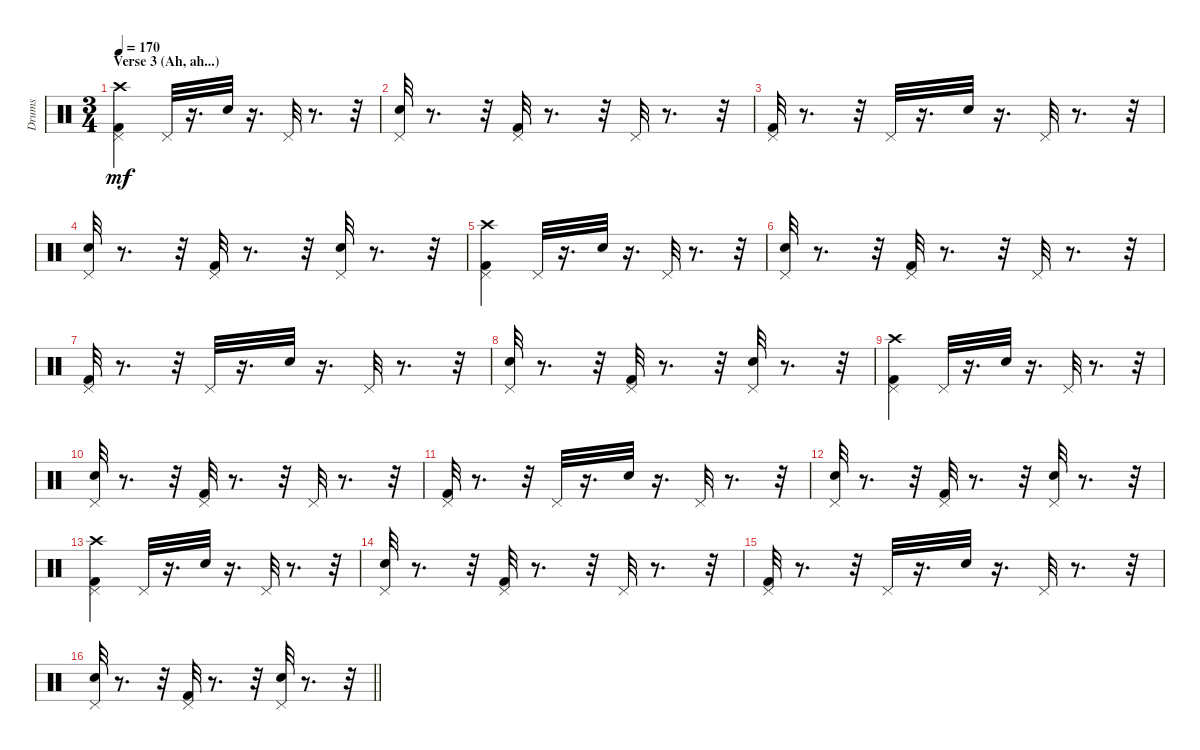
\track ("Drums" "Drums") {instrument percussion}
\staff {score}
\articulation defaults
\ts (3 4)
\section ("" "Verse 3 (Ah, ah...)")
\tempo 170
\clef neutral
\ks c
("Kick (hit) 2" "Pedal Hi-Hat (hit)" "Crash high (hit)").4{dy mf} "Pedal Hi-Hat (hit)".32 r.16{d} "Snare (hit) 2".32 r.16{d} "Pedal Hi-Hat (hit)".32 r.8{d} r.32 |
("Snare (hit) 2" "Pedal Hi-Hat (hit)").32 r.8{d} r.32 ("Kick (hit) 2" "Pedal Hi-Hat (hit)").32 r.8{d} r.32 "Pedal Hi-Hat (hit)".32 r.8{d} r.32 |
("Kick (hit) 2" "Pedal Hi-Hat (hit)").32 r.8{d} r.32 "Pedal Hi-Hat (hit)".32 r.16{d} "Snare (hit) 2".32 r.16{d} "Pedal Hi-Hat (hit)".32 r.8{d} r.32 |
("Snare (hit) 2" "Pedal Hi-Hat (hit)").32 r.8{d} r.32 ("Kick (hit) 2" "Pedal Hi-Hat (hit)").32 r.8{d} r.32 ("Snare (hit) 2" "Pedal Hi-Hat (hit)").32 r.8{d} r.32 |
("Kick (hit) 2" "Pedal Hi-Hat (hit)" "Crash high (hit)").4 "Pedal Hi-Hat (hit)".32 r.16{d} "Snare (hit) 2".32 r.16{d} "Pedal Hi-Hat (hit)".32 r.8{d} r.32 |
("Snare (hit) 2" "Pedal Hi-Hat (hit)").32 r.8{d} r.32 ("Kick (hit) 2" "Pedal Hi-Hat (hit)").32 r.8{d} r.32 "Pedal Hi-Hat (hit)".32 r.8{d} r.32 |
("Kick (hit) 2" "Pedal Hi-Hat (hit)").32 r.8{d} r.32 "Pedal Hi-Hat (hit)".32 r.16{d} "Snare (hit) 2".32 r.16{d} "Pedal Hi-Hat (hit)".32 r.8{d} r.32 |
("Snare (hit) 2" "Pedal Hi-Hat (hit)").32 r.8{d} r.32 ("Kick (hit) 2" "Pedal Hi-Hat (hit)").32 r.8{d} r.32 ("Snare (hit) 2" "Pedal Hi-Hat (hit)").32 r.8{d} r.32 |
("Kick (hit) 2" "Pedal Hi-Hat (hit)" "Crash high (hit)").4 "Pedal Hi-Hat (hit)".32 r.16{d} "Snare (hit) 2".32 r.16{d} "Pedal Hi-Hat (hit)".32 r.8{d} r.32 |
("Snare (hit) 2" "Pedal Hi-Hat (hit)").32 r.8{d} r.32 ("Kick (hit) 2" "Pedal Hi-Hat (hit)").32 r.8{d} r.32 "Pedal Hi-Hat (hit)".32 r.8{d} r.32 |
("Kick (hit) 2" "Pedal Hi-Hat (hit)").32 r.8{d} r.32 "Pedal Hi-Hat (hit)".32 r.16{d} "Snare (hit) 2".32 r.16{d} "Pedal Hi-Hat (hit)".32 r.8{d} r.32 |
("Snare (hit) 2" "Pedal Hi-Hat (hit)").32 r.8{d} r.32 ("Kick (hit) 2" "Pedal Hi-Hat (hit)").32 r.8{d} r.32 ("Snare (hit) 2" "Pedal Hi-Hat (hit)").32 r.8{d} r.32 |
("Kick (hit) 2" "Pedal Hi-Hat (hit)" "Crash high (hit)").4 "Pedal Hi-Hat (hit)".32 r.16{d} "Snare (hit) 2".32 r.16{d} "Pedal Hi-Hat (hit)".32 r.8{d} r.32 |
("Snare (hit) 2" "Pedal Hi-Hat (hit)").32 r.8{d} r.32 ("Kick (hit) 2" "Pedal Hi-Hat (hit)").32 r.8{d} r.32 "Pedal Hi-Hat (hit)".32 r.8{d} r.32 |
("Kick (hit) 2" "Pedal Hi-Hat (hit)").32 r.8{d} r.32 "Pedal Hi-Hat (hit)".32 r.16{d} "Snare (hit) 2".32 r.16{d} "Pedal Hi-Hat (hit)".32 r.8{d} r.32 |
\barLineRight lightlight
("Snare (hit) 2" "Pedal Hi-Hat (hit)").32 r.8{d} r.32 ("Kick (hit) 2" "Pedal Hi-Hat (hit)").32 r.8{d} r.32 ("Snare (hit) 2" "Pedal Hi-Hat (hit)").32 r.8{d} r.32
